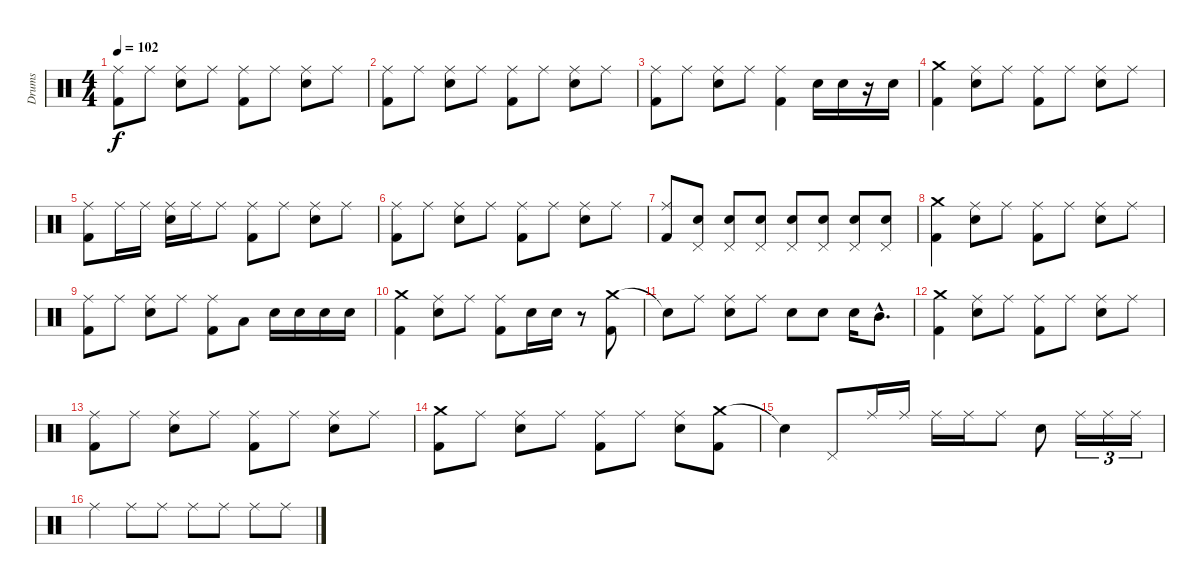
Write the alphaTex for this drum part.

\track ("Drums" "Drums") {instrument percussion}
\staff {score}
\articulation defaults
\ts (4 4)
\tempo 102
\clef neutral
\ks c
("Ride (middle)" "Kick (hit) 2").8{dy f} "Ride (middle)".8 ("Ride (middle)" "Snare (hit) 2").8 "Ride (middle)".8 ("Ride (middle)" "Kick (hit) 2").8 "Ride (middle)".8 ("Ride (middle)" "Snare (hit) 2").8 "Ride (middle)".8 |
("Ride (middle)" "Kick (hit) 2").8 "Ride (middle)".8 ("Ride (middle)" "Snare (hit) 2").8 "Ride (middle)".8 ("Ride (middle)" "Kick (hit) 2").8 "Ride (middle)".8 ("Ride (middle)" "Snare (hit) 2").8 "Ride (middle)".8 |
("Ride (middle)" "Kick (hit) 2").8 "Ride (middle)".8 ("Ride (middle)" "Snare (hit) 2").8 "Ride (middle)".8 ("Ride (middle)" "Kick (hit) 2").4 "Snare (hit) 2".16 "Snare (hit) 2".16 r.16 "Snare (hit) 2".16 |
("Crash medium (hit)" "Kick (hit) 2").4 ("Ride (middle)" "Snare (hit) 2").8 "Ride (middle)".8 ("Ride (middle)" "Kick (hit) 2").8 "Ride (middle)".8 ("Ride (middle)" "Snare (hit) 2").8 "Ride (middle)".8 |
("Ride (middle)" "Kick (hit) 2").8 "Ride (middle)".16 "Ride (middle)".16 ("Ride (middle)" "Snare (hit) 2").16 "Ride (middle)".16 "Ride (middle)".8 ("Ride (middle)" "Kick (hit) 2").8 "Ride (middle)".8 ("Ride (middle)" "Snare (hit) 2").8 "Ride (middle)".8 |
("Ride (middle)" "Kick (hit) 2").8 "Ride (middle)".8 ("Ride (middle)" "Snare (hit) 2").8 "Ride (middle)".8 ("Ride (middle)" "Kick (hit) 2").8 "Ride (middle)".8 ("Ride (middle)" "Snare (hit) 2").8 "Ride (middle)".8 |
("Ride (middle)" "Kick (hit) 2").8 ("Pedal Hi-Hat (hit)" "Snare (hit) 2").8 ("Pedal Hi-Hat (hit)" "Snare (hit) 2").8 ("Pedal Hi-Hat (hit)" "Snare (hit) 2").8 ("Pedal Hi-Hat (hit)" "Snare (hit) 2").8 ("Pedal Hi-Hat (hit)" "Snare (hit) 2").8 ("Pedal Hi-Hat (hit)" "Snare (hit) 2").8 ("Pedal Hi-Hat (hit)" "Snare (hit) 2").8 |
("Crash medium (hit)" "Kick (hit) 2").4 ("Ride (middle)" "Snare (hit) 2").8 "Ride (middle)".8 ("Ride (middle)" "Kick (hit) 2").8 "Ride (middle)".8 ("Ride (middle)" "Snare (hit) 2").8 "Ride (middle)".8 |
("Ride (middle)" "Kick (hit) 2").8 "Ride (middle)".8 ("Ride (middle)" "Snare (hit) 2").8 "Ride (middle)".8 ("Ride (middle)" "Kick (hit) 2").8 "Low Tom (hit)".8 "Snare (hit) 2".16 "Snare (hit) 2".16 "Snare (hit) 2".16 "Snare (hit) 2".16 |
("Crash medium (hit)" "Kick (hit) 2").4 ("Ride (middle)" "Snare (hit) 2").8 "Ride (middle)".8 ("Ride (middle)" "Kick (hit) 2").8 "Snare (hit) 2".16 "Snare (hit) 2".16 r.8 ("Crash medium (hit)" "Kick (hit) 2").8 |
"Snare (hit)"{t}.8 "Ride (middle)".8 ("Ride (middle)" "Snare (hit) 2").8 "Ride (middle)".8 "Snare (hit) 2".8 "Snare (hit) 2".8 "Snare (hit) 2".16 "Mid Tom (hit)"{hac}.8{d} |
("Crash medium (hit)" "Kick (hit) 2").4 ("Ride (middle)" "Snare (hit) 2").8 "Ride (middle)".8 ("Ride (middle)" "Kick (hit) 2").8 "Ride (middle)".8 ("Ride (middle)" "Snare (hit) 2").8 "Ride (middle)".8 |
("Ride (middle)" "Kick (hit) 2").8 "Ride (middle)".8 ("Ride (middle)" "Snare (hit) 2").8 "Ride (middle)".8 ("Ride (middle)" "Kick (hit) 2").8 "Ride (middle)".8 ("Ride (middle)" "Snare (hit) 2").8 "Ride (middle)".8 |
("Crash medium (hit)" "Kick (hit) 2").8 "Ride (middle)".8 ("Ride (middle)" "Snare (hit) 2").8 "Ride (middle)".8 ("Ride (middle)" "Kick (hit) 2").8 "Ride (middle)".8 ("Ride (middle)" "Snare (hit) 2").8 ("Crash medium (hit)" "Kick (hit) 2").8 |
"Snare (hit)"{t}.4 "Pedal Hi-Hat (hit)".8 "Ride (middle)".16 "Ride (middle)".16 "Ride (middle)".16 "Ride (middle)".16 "Ride (middle)".8 "Snare (hit) 2".8 "Ride (middle)".16{tu (3 2)} "Ride (middle)".16{tu (3 2)} "Ride (middle)".16{tu (3 2)} |
"Ride (middle)".4 "Ride (middle)".8 "Ride (middle)".8 "Ride (middle)".8 "Ride (middle)".8 "Ride (middle)".8 "Ride (middle)".8
